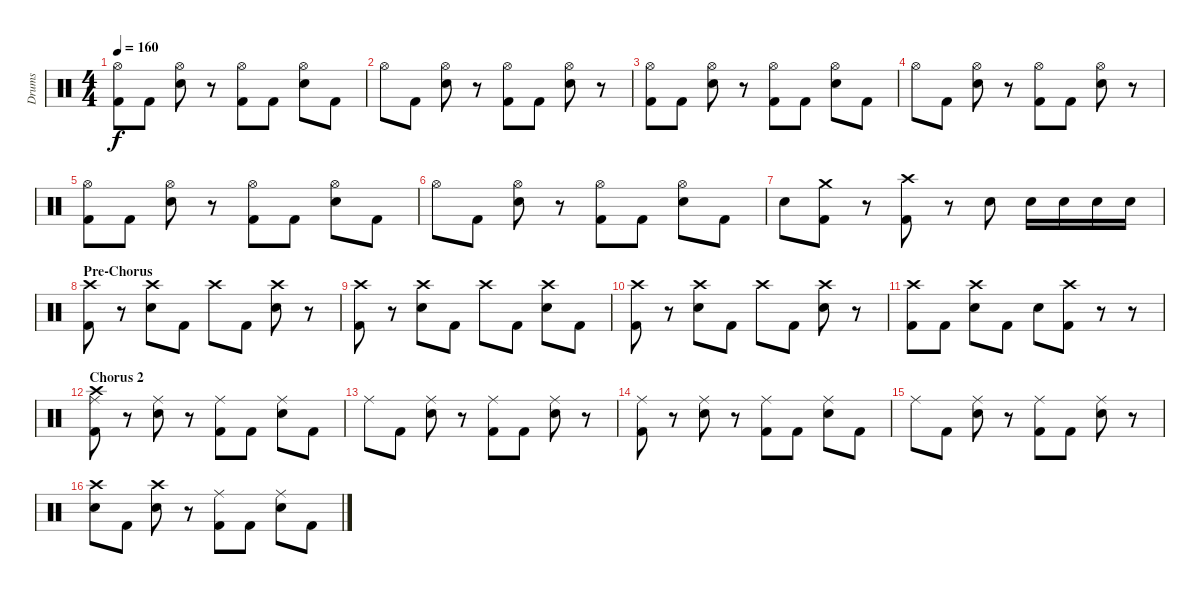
\track ("Drums" "Drums") {instrument percussion}
\staff {score}
\articulation defaults
\ts (4 4)
\tempo 160
\clef neutral
\ks c
("Hi-Hat (open)" "Kick (hit) 2").8{dy f} "Kick (hit) 2".8 ("Hi-Hat (open)" "Snare (hit) 2").8 r.8 ("Hi-Hat (open)" "Kick (hit) 2").8 "Kick (hit) 2".8 ("Hi-Hat (open)" "Snare (hit) 2").8 "Kick (hit) 2".8 |
"Hi-Hat (open)".8 "Kick (hit) 2".8 ("Hi-Hat (open)" "Snare (hit) 2").8 r.8 ("Hi-Hat (open)" "Kick (hit) 2").8 "Kick (hit) 2".8 ("Hi-Hat (open)" "Snare (hit) 2").8 r.8 |
("Hi-Hat (open)" "Kick (hit) 2").8 "Kick (hit) 2".8 ("Hi-Hat (open)" "Snare (hit) 2").8 r.8 ("Hi-Hat (open)" "Kick (hit) 2").8 "Kick (hit) 2".8 ("Hi-Hat (open)" "Snare (hit) 2").8 "Kick (hit) 2".8 |
"Hi-Hat (open)".8 "Kick (hit) 2".8 ("Hi-Hat (open)" "Snare (hit) 2").8 r.8 ("Hi-Hat (open)" "Kick (hit) 2").8 "Kick (hit) 2".8 ("Hi-Hat (open)" "Snare (hit) 2").8 r.8 |
("Hi-Hat (open)" "Kick (hit) 2").8 "Kick (hit) 2".8 ("Hi-Hat (open)" "Snare (hit) 2").8 r.8 ("Hi-Hat (open)" "Kick (hit) 2").8 "Kick (hit) 2".8 ("Hi-Hat (open)" "Snare (hit) 2").8 "Kick (hit) 2".8 |
"Hi-Hat (open)".8 "Kick (hit) 2".8 ("Hi-Hat (open)" "Snare (hit) 2").8 r.8 ("Hi-Hat (open)" "Kick (hit) 2").8 "Kick (hit) 2".8 ("Hi-Hat (open)" "Snare (hit) 2").8 "Kick (hit) 2".8 |
"Snare (hit) 2".8 ("Crash medium (hit)" "Kick (hit) 2").8 r.8 ("Crash high (hit)" "Kick (hit) 2").8 r.8 "Snare (hit) 2".8 "Snare (hit) 2".16 "Snare (hit) 2".16 "Snare (hit) 2".16 "Snare (hit) 2".16 |
\section ("" "Pre-Chorus")
("Crash high (hit)" "Kick (hit) 2").8 r.8 ("Crash high (hit)" "Snare (hit) 2").8 "Kick (hit) 2".8 "Crash high (hit)".8 "Kick (hit) 2".8 ("Crash high (hit)" "Snare (hit) 2").8 r.8 |
("Crash high (hit)" "Kick (hit) 2").8 r.8 ("Crash high (hit)" "Snare (hit) 2").8 "Kick (hit) 2".8 "Crash high (hit)".8 "Kick (hit) 2".8 ("Crash high (hit)" "Snare (hit) 2").8 "Kick (hit) 2".8 |
("Crash high (hit)" "Kick (hit) 2").8 r.8 ("Crash high (hit)" "Snare (hit) 2").8 "Kick (hit) 2".8 "Crash high (hit)".8 "Kick (hit) 2".8 ("Crash high (hit)" "Snare (hit) 2").8 r.8 |
("Crash high (hit)" "Kick (hit) 2").8 "Kick (hit) 2".8 ("Crash high (hit)" "Snare (hit) 2").8 "Kick (hit) 2".8 "Snare (hit) 2".8 ("Crash high (hit)" "Kick (hit) 2").8 r.8 r.8 |
\section ("" "Chorus 2")
("Ride (middle)" "Crash high (hit)" "Kick (hit) 2").8 r.8 ("Ride (middle)" "Snare (hit) 2").8 r.8 ("Ride (middle)" "Kick (hit) 2").8 "Kick (hit) 2".8 ("Ride (middle)" "Snare (hit) 2").8 "Kick (hit) 2".8 |
"Ride (middle)".8 "Kick (hit) 2".8 ("Ride (middle)" "Snare (hit) 2").8 r.8 ("Ride (middle)" "Kick (hit) 2").8 "Kick (hit) 2".8 ("Ride (middle)" "Snare (hit) 2").8 r.8 |
("Ride (middle)" "Kick (hit) 2").8 r.8 ("Ride (middle)" "Snare (hit) 2").8 r.8 ("Ride (middle)" "Kick (hit) 2").8 "Kick (hit) 2".8 ("Ride (middle)" "Snare (hit) 2").8 "Kick (hit) 2".8 |
"Ride (middle)".8 "Kick (hit) 2".8 ("Ride (middle)" "Snare (hit) 2").8 r.8 ("Ride (middle)" "Kick (hit) 2").8 "Kick (hit) 2".8 ("Ride (middle)" "Snare (hit) 2").8 r.8 |
("Crash high (hit)" "Snare (hit) 2").8 "Kick (hit) 2".8 ("Crash high (hit)" "Snare (hit) 2").8 r.8 ("Ride (middle)" "Kick (hit) 2").8 "Kick (hit) 2".8 ("Ride (middle)" "Snare (hit) 2").8 "Kick (hit) 2".8
